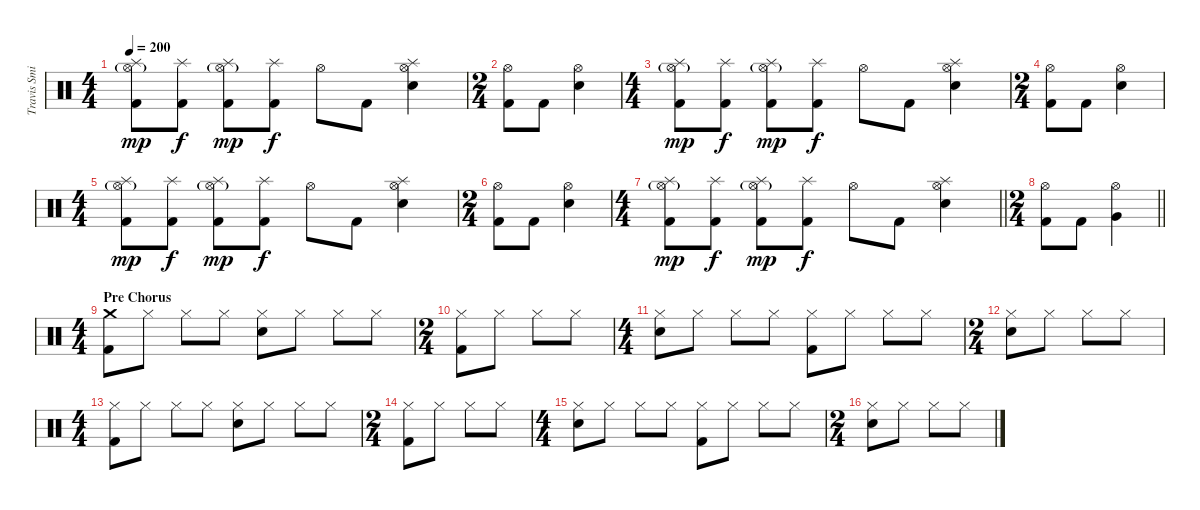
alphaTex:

\track ("Travis Smith" "Travis Smi") {instrument percussion}
\staff {score}
\articulation defaults
\ts (4 4)
\tempo 200
\clef neutral
\ks c
("Splash (hit)" "Hi-Hat (open)"{g} "Kick (hit) 2").8{dy mp} ("Splash (hit)" "Kick (hit) 2").8{dy f} ("Splash (hit)" "Hi-Hat (open)"{g} "Kick (hit) 2").8{dy mp} ("Splash (hit)" "Kick (hit) 2").8{dy f} "Hi-Hat (open)".8 "Kick (hit) 2".8 ("Splash (hit)" "Hi-Hat (open)" "Electric Snare (hit)").4 |
\ts (2 4)
("Hi-Hat (open)" "Kick (hit) 2").8 "Kick (hit) 2".8 ("Hi-Hat (open)" "Electric Snare (hit)").4 |
\ts (4 4)
("Splash (hit)" "Hi-Hat (open)"{g} "Kick (hit) 2").8{dy mp} ("Splash (hit)" "Kick (hit) 2").8{dy f} ("Splash (hit)" "Hi-Hat (open)"{g} "Kick (hit) 2").8{dy mp} ("Splash (hit)" "Kick (hit) 2").8{dy f} "Hi-Hat (open)".8 "Kick (hit) 2".8 ("Splash (hit)" "Hi-Hat (open)" "Electric Snare (hit)").4 |
\ts (2 4)
("Hi-Hat (open)" "Kick (hit) 2").8 "Kick (hit) 2".8 ("Hi-Hat (open)" "Electric Snare (hit)").4 |
\ts (4 4)
("Splash (hit)" "Hi-Hat (open)"{g} "Kick (hit) 2").8{dy mp} ("Splash (hit)" "Kick (hit) 2").8{dy f} ("Splash (hit)" "Hi-Hat (open)"{g} "Kick (hit) 2").8{dy mp} ("Splash (hit)" "Kick (hit) 2").8{dy f} "Hi-Hat (open)".8 "Kick (hit) 2".8 ("Splash (hit)" "Hi-Hat (open)" "Electric Snare (hit)").4 |
\ts (2 4)
("Hi-Hat (open)" "Kick (hit) 2").8 "Kick (hit) 2".8 ("Hi-Hat (open)" "Electric Snare (hit)").4 |
\ts (4 4)
\barLineRight lightlight
("Splash (hit)" "Hi-Hat (open)"{g} "Kick (hit) 2").8{dy mp} ("Splash (hit)" "Kick (hit) 2").8{dy f} ("Splash (hit)" "Hi-Hat (open)"{g} "Kick (hit) 2").8{dy mp} ("Splash (hit)" "Kick (hit) 2").8{dy f} "Hi-Hat (open)".8 "Kick (hit) 2".8 ("Splash (hit)" "Hi-Hat (open)" "Electric Snare (hit)").4 |
\ts (2 4)
\barLineRight lightlight
("Hi-Hat (open)" "Kick (hit) 2").8 "Kick (hit) 2".8 ("Hi-Hat (open)" "Very Low Tom (hit)").4 |
\ts (4 4)
\section ("" "Pre Chorus")
("Crash medium (hit)" "Kick (hit) 2").8 "Hi-Hat (closed)".8 "Hi-Hat (closed)".8 "Hi-Hat (closed)".8 ("Hi-Hat (closed)" "Electric Snare (hit)").8 "Hi-Hat (closed)".8 "Hi-Hat (closed)".8 "Hi-Hat (closed)".8 |
\ts (2 4)
("Hi-Hat (closed)" "Kick (hit) 2").8 "Hi-Hat (closed)".8 "Hi-Hat (closed)".8 "Hi-Hat (closed)".8 |
\ts (4 4)
("Hi-Hat (closed)" "Electric Snare (hit)").8 "Hi-Hat (closed)".8 "Hi-Hat (closed)".8 "Hi-Hat (closed)".8 ("Hi-Hat (closed)" "Kick (hit) 2").8 "Hi-Hat (closed)".8 "Hi-Hat (closed)".8 "Hi-Hat (closed)".8 |
\ts (2 4)
("Hi-Hat (closed)" "Electric Snare (hit)").8 "Hi-Hat (closed)".8 "Hi-Hat (closed)".8 "Hi-Hat (closed)".8 |
\ts (4 4)
("Hi-Hat (closed)" "Kick (hit) 2").8 "Hi-Hat (closed)".8 "Hi-Hat (closed)".8 "Hi-Hat (closed)".8 ("Hi-Hat (closed)" "Electric Snare (hit)").8 "Hi-Hat (closed)".8 "Hi-Hat (closed)".8 "Hi-Hat (closed)".8 |
\ts (2 4)
("Hi-Hat (closed)" "Kick (hit) 2").8 "Hi-Hat (closed)".8 "Hi-Hat (closed)".8 "Hi-Hat (closed)".8 |
\ts (4 4)
("Hi-Hat (closed)" "Electric Snare (hit)").8 "Hi-Hat (closed)".8 "Hi-Hat (closed)".8 "Hi-Hat (closed)".8 ("Hi-Hat (closed)" "Kick (hit) 2").8 "Hi-Hat (closed)".8 "Hi-Hat (closed)".8 "Hi-Hat (closed)".8 |
\ts (2 4)
("Hi-Hat (closed)" "Electric Snare (hit)").8 "Hi-Hat (closed)".8 "Hi-Hat (closed)".8 "Hi-Hat (closed)".8
